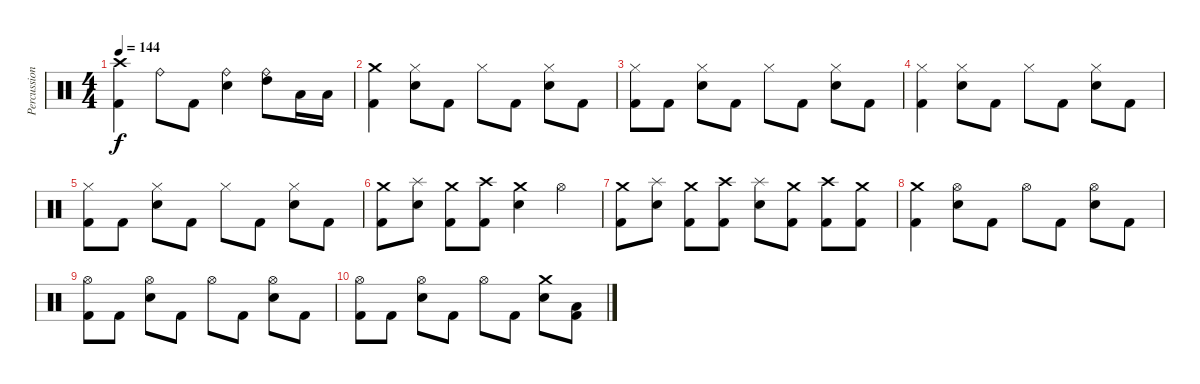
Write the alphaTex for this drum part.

\track ("Percussions" "Percussion") {instrument percussion}
\staff {score}
\articulation defaults
\ts (4 4)
\tempo 144
\clef neutral
\ks c
("Crash high (hit)" "Kick (hit) 2").4{dy f} "Ride (bell)".8 "Kick (hit) 2".8 ("Ride (bell)" "Electric Snare (hit)").4 ("Ride (bell)" "High Tom (hit)").8 "Low Tom (hit)".16 "Low Tom (hit)".16 |
("Crash medium (hit)" "Kick (hit) 2").4 ("Hi-Hat (closed)" "Electric Snare (hit)").8 "Kick (hit) 2".8 "Hi-Hat (closed)".8 "Kick (hit) 2".8 ("Hi-Hat (closed)" "Electric Snare (hit)").8 "Kick (hit) 2".8 |
("Hi-Hat (closed)" "Kick (hit) 2").8 "Kick (hit) 2".8 ("Hi-Hat (closed)" "Electric Snare (hit)").8 "Kick (hit) 2".8 "Hi-Hat (closed)".8 "Kick (hit) 2".8 ("Hi-Hat (closed)" "Electric Snare (hit)").8 "Kick (hit) 2".8 |
("Hi-Hat (closed)" "Kick (hit) 2").4 ("Hi-Hat (closed)" "Electric Snare (hit)").8 "Kick (hit) 2".8 "Hi-Hat (closed)".8 "Kick (hit) 2".8 ("Hi-Hat (closed)" "Electric Snare (hit)").8 "Kick (hit) 2".8 |
("Hi-Hat (closed)" "Kick (hit) 2").8 "Kick (hit) 2".8 ("Hi-Hat (closed)" "Electric Snare (hit)").8 "Kick (hit) 2".8 "Hi-Hat (closed)".8 "Kick (hit) 2".8 ("Hi-Hat (closed)" "Electric Snare (hit)").8 "Kick (hit) 2".8 |
("Crash medium (hit)" "Kick (hit) 2").8 ("Splash (hit)" "Electric Snare (hit)").8 ("Crash medium (hit)" "Kick (hit) 2").8 ("Crash high (hit)" "Kick (hit) 2").8 ("Crash medium (hit)" "Electric Snare (hit)").4 "Hi-Hat (open)".4 |
("Crash medium (hit)" "Kick (hit) 2").8 ("Splash (hit)" "Electric Snare (hit)").8 ("Crash medium (hit)" "Kick (hit) 2").8 ("Crash high (hit)" "Kick (hit) 2").8 ("Splash (hit)" "Electric Snare (hit)").8 ("Crash medium (hit)" "Kick (hit) 2").8 ("Crash high (hit)" "Kick (hit) 2").8 ("Crash medium (hit)" "Kick (hit) 2").8 |
("Crash medium (hit)" "Kick (hit) 2").4 ("Hi-Hat (open)" "Electric Snare (hit)").8 "Kick (hit) 2".8 "Hi-Hat (open)".8 "Kick (hit) 2".8 ("Hi-Hat (open)" "Electric Snare (hit)").8 "Kick (hit) 2".8 |
("Hi-Hat (open)" "Kick (hit) 2").8 "Kick (hit) 2".8 ("Hi-Hat (open)" "Electric Snare (hit)").8 "Kick (hit) 2".8 "Hi-Hat (open)".8 "Kick (hit) 2".8 ("Hi-Hat (open)" "Electric Snare (hit)").8 "Kick (hit) 2".8 |
("Hi-Hat (open)" "Kick (hit) 2").8 "Kick (hit) 2".8 ("Hi-Hat (open)" "Electric Snare (hit)").8 "Kick (hit) 2".8 "Hi-Hat (open)".8 "Kick (hit) 2".8 ("Crash medium (hit)" "Electric Snare (hit)").8 ("Low Floor Tom (hit)" "Kick (hit) 2").8
